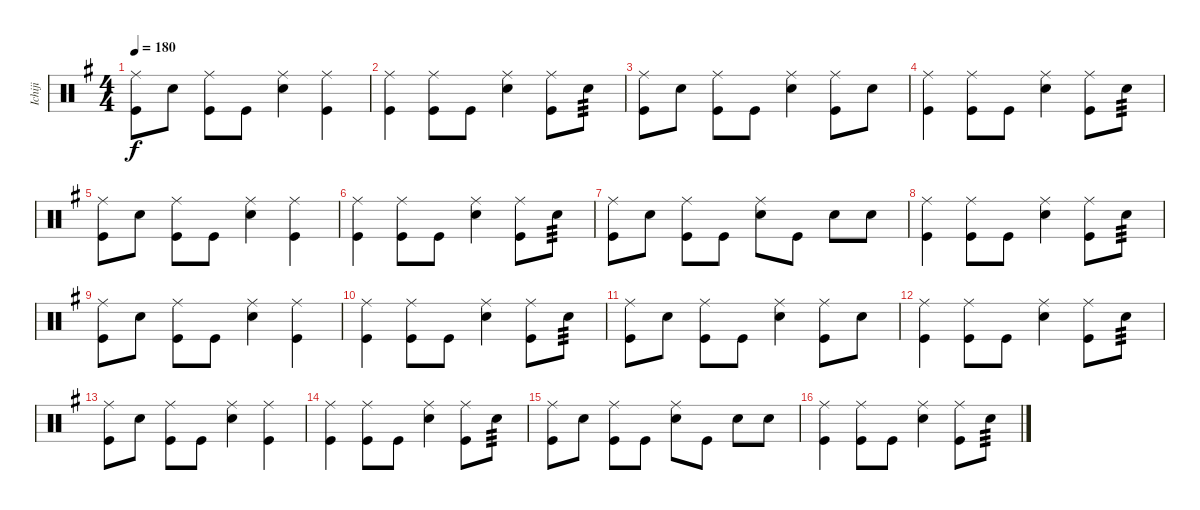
\track ("Ichiji" "Ichiji") {instrument percussion}
\staff {score}
\articulation defaults
\ts (4 4)
\tempo 180
\clef neutral
\ks g
("Ride (middle)" "Kick (hit)").8{dy f} "Snare (hit) 2".8 ("Ride (middle)" "Kick (hit)").8 "Kick (hit)".8 ("Ride (middle)" "Snare (hit) 2").4 ("Ride (middle)" "Kick (hit)").4 |
("Ride (middle)" "Kick (hit)").4 ("Ride (middle)" "Kick (hit)").8 "Kick (hit)".8 ("Ride (middle)" "Snare (hit) 2").4 ("Ride (middle)" "Kick (hit)").8 "Snare (hit) 2".8{tp 3} |
("Ride (middle)" "Kick (hit)").8 "Snare (hit) 2".8 ("Ride (middle)" "Kick (hit)").8 "Kick (hit)".8 ("Ride (middle)" "Snare (hit) 2").4 ("Ride (middle)" "Kick (hit)").8 "Snare (hit) 2".8 |
("Ride (middle)" "Kick (hit)").4 ("Ride (middle)" "Kick (hit)").8 "Kick (hit)".8 ("Ride (middle)" "Snare (hit) 2").4 ("Ride (middle)" "Kick (hit)").8 "Snare (hit) 2".8{tp 3} |
("Ride (middle)" "Kick (hit)").8 "Snare (hit) 2".8 ("Ride (middle)" "Kick (hit)").8 "Kick (hit)".8 ("Ride (middle)" "Snare (hit) 2").4 ("Ride (middle)" "Kick (hit)").4 |
("Ride (middle)" "Kick (hit)").4 ("Ride (middle)" "Kick (hit)").8 "Kick (hit)".8 ("Ride (middle)" "Snare (hit) 2").4 ("Ride (middle)" "Kick (hit)").8 "Snare (hit) 2".8{tp 3} |
("Ride (middle)" "Kick (hit)").8 "Snare (hit) 2".8 ("Ride (middle)" "Kick (hit)").8 "Kick (hit)".8 ("Ride (middle)" "Snare (hit) 2").8 "Kick (hit)".8 "Snare (hit) 2".8 "Snare (hit) 2".8 |
("Ride (middle)" "Kick (hit)").4 ("Ride (middle)" "Kick (hit)").8 "Kick (hit)".8 ("Ride (middle)" "Snare (hit) 2").4 ("Ride (middle)" "Kick (hit)").8 "Snare (hit) 2".8{tp 3} |
("Ride (middle)" "Kick (hit)").8 "Snare (hit) 2".8 ("Ride (middle)" "Kick (hit)").8 "Kick (hit)".8 ("Ride (middle)" "Snare (hit) 2").4 ("Ride (middle)" "Kick (hit)").4 |
("Ride (middle)" "Kick (hit)").4 ("Ride (middle)" "Kick (hit)").8 "Kick (hit)".8 ("Ride (middle)" "Snare (hit) 2").4 ("Ride (middle)" "Kick (hit)").8 "Snare (hit) 2".8{tp 3} |
("Ride (middle)" "Kick (hit)").8 "Snare (hit) 2".8 ("Ride (middle)" "Kick (hit)").8 "Kick (hit)".8 ("Ride (middle)" "Snare (hit) 2").4 ("Ride (middle)" "Kick (hit)").8 "Snare (hit) 2".8 |
("Ride (middle)" "Kick (hit)").4 ("Ride (middle)" "Kick (hit)").8 "Kick (hit)".8 ("Ride (middle)" "Snare (hit) 2").4 ("Ride (middle)" "Kick (hit)").8 "Snare (hit) 2".8{tp 3} |
("Ride (middle)" "Kick (hit)").8 "Snare (hit) 2".8 ("Ride (middle)" "Kick (hit)").8 "Kick (hit)".8 ("Ride (middle)" "Snare (hit) 2").4 ("Ride (middle)" "Kick (hit)").4 |
("Ride (middle)" "Kick (hit)").4 ("Ride (middle)" "Kick (hit)").8 "Kick (hit)".8 ("Ride (middle)" "Snare (hit) 2").4 ("Ride (middle)" "Kick (hit)").8 "Snare (hit) 2".8{tp 3} |
("Ride (middle)" "Kick (hit)").8 "Snare (hit) 2".8 ("Ride (middle)" "Kick (hit)").8 "Kick (hit)".8 ("Ride (middle)" "Snare (hit) 2").8 "Kick (hit)".8 "Snare (hit) 2".8 "Snare (hit) 2".8 |
("Ride (middle)" "Kick (hit)").4 ("Ride (middle)" "Kick (hit)").8 "Kick (hit)".8 ("Ride (middle)" "Snare (hit) 2").4 ("Ride (middle)" "Kick (hit)").8 "Snare (hit) 2".8{tp 3}
